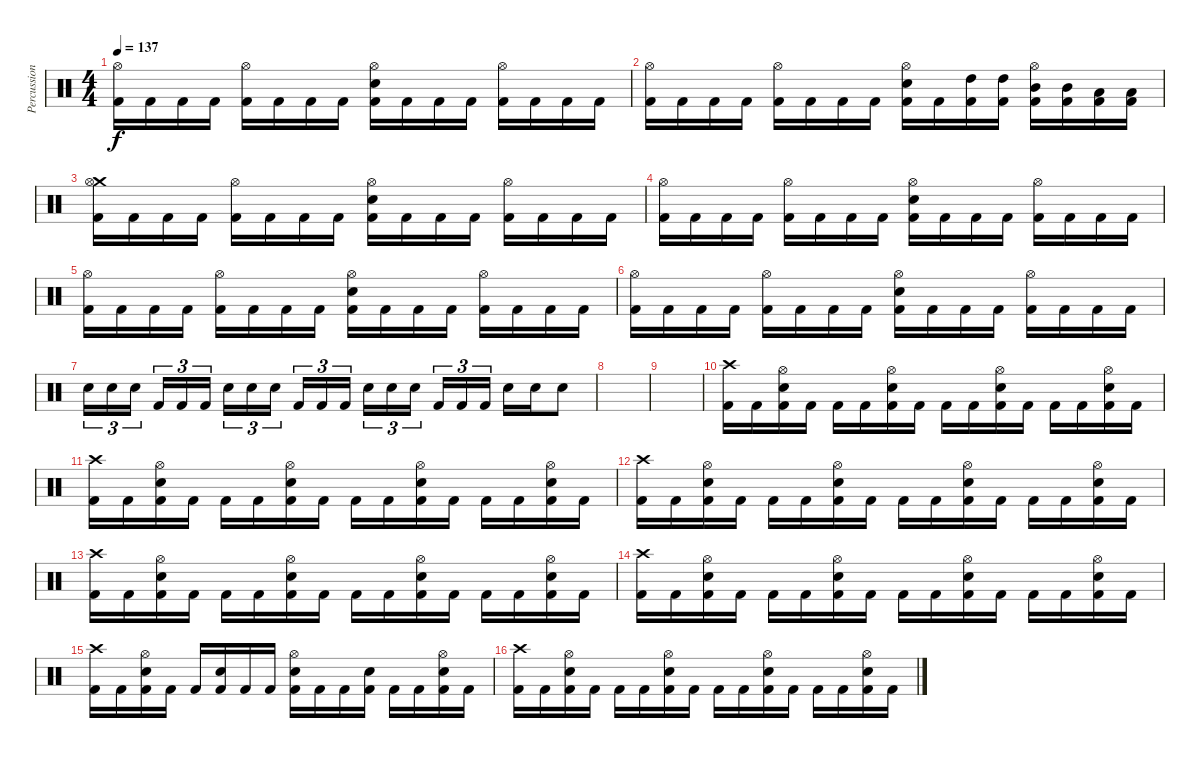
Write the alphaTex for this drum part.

\track ("Percussion" "Percussion") {instrument percussion}
\staff {score}
\articulation defaults
\ts (4 4)
\tempo 137
\clef neutral
\ks c
("Hi-Hat (open)" "Kick (hit) 2").16{dy f} "Kick (hit) 2".16 "Kick (hit) 2".16 "Kick (hit) 2".16 ("Hi-Hat (open)" "Kick (hit) 2").16 "Kick (hit) 2".16 "Kick (hit) 2".16 "Kick (hit) 2".16 ("Hi-Hat (open)" "Electric Snare (hit)" "Kick (hit) 2").16 "Kick (hit) 2".16 "Kick (hit) 2".16 "Kick (hit) 2".16 ("Hi-Hat (open)" "Kick (hit) 2").16 "Kick (hit) 2".16 "Kick (hit) 2".16 "Kick (hit) 2".16 |
("Hi-Hat (open)" "Kick (hit) 2").16 "Kick (hit) 2".16 "Kick (hit) 2".16 "Kick (hit) 2".16 ("Hi-Hat (open)" "Kick (hit) 2").16 "Kick (hit) 2".16 "Kick (hit) 2".16 "Kick (hit) 2".16 ("Hi-Hat (open)" "Electric Snare (hit)" "Kick (hit) 2").16 "Kick (hit) 2".16 ("High Tom (hit)" "Kick (hit) 2").16 ("High Tom (hit)" "Kick (hit) 2").16 ("Hi-Hat (open)" "Mid Tom (hit)" "Kick (hit) 2").16 ("Mid Tom (hit)" "Kick (hit) 2").16 ("Low Tom (hit)" "Kick (hit) 2").16 ("Low Tom (hit)" "Kick (hit) 2").16 |
("Crash medium (hit)" "Hi-Hat (open)" "Kick (hit) 2").16 "Kick (hit) 2".16 "Kick (hit) 2".16 "Kick (hit) 2".16 ("Hi-Hat (open)" "Kick (hit) 2").16 "Kick (hit) 2".16 "Kick (hit) 2".16 "Kick (hit) 2".16 ("Hi-Hat (open)" "Electric Snare (hit)" "Kick (hit) 2").16 "Kick (hit) 2".16 "Kick (hit) 2".16 "Kick (hit) 2".16 ("Hi-Hat (open)" "Kick (hit) 2").16 "Kick (hit) 2".16 "Kick (hit) 2".16 "Kick (hit) 2".16 |
("Hi-Hat (open)" "Kick (hit) 2").16 "Kick (hit) 2".16 "Kick (hit) 2".16 "Kick (hit) 2".16 ("Hi-Hat (open)" "Kick (hit) 2").16 "Kick (hit) 2".16 "Kick (hit) 2".16 "Kick (hit) 2".16 ("Hi-Hat (open)" "Electric Snare (hit)" "Kick (hit) 2").16 "Kick (hit) 2".16 "Kick (hit) 2".16 "Kick (hit) 2".16 ("Hi-Hat (open)" "Kick (hit) 2").16 "Kick (hit) 2".16 "Kick (hit) 2".16 "Kick (hit) 2".16 |
("Hi-Hat (open)" "Kick (hit) 2").16 "Kick (hit) 2".16 "Kick (hit) 2".16 "Kick (hit) 2".16 ("Hi-Hat (open)" "Kick (hit) 2").16 "Kick (hit) 2".16 "Kick (hit) 2".16 "Kick (hit) 2".16 ("Hi-Hat (open)" "Electric Snare (hit)" "Kick (hit) 2").16 "Kick (hit) 2".16 "Kick (hit) 2".16 "Kick (hit) 2".16 ("Hi-Hat (open)" "Kick (hit) 2").16 "Kick (hit) 2".16 "Kick (hit) 2".16 "Kick (hit) 2".16 |
("Hi-Hat (open)" "Kick (hit) 2").16 "Kick (hit) 2".16 "Kick (hit) 2".16 "Kick (hit) 2".16 ("Hi-Hat (open)" "Kick (hit) 2").16 "Kick (hit) 2".16 "Kick (hit) 2".16 "Kick (hit) 2".16 ("Hi-Hat (open)" "Electric Snare (hit)" "Kick (hit) 2").16 "Kick (hit) 2".16 "Kick (hit) 2".16 "Kick (hit) 2".16 ("Hi-Hat (open)" "Kick (hit) 2").16 "Kick (hit) 2".16 "Kick (hit) 2".16 "Kick (hit) 2".16 |
"Electric Snare (hit)".16{tu (3 2)} "Electric Snare (hit)".16{tu (3 2)} "Electric Snare (hit)".16{tu (3 2) beam splitsecondary} "Kick (hit) 2".16{tu (3 2)} "Kick (hit) 2".16{tu (3 2)} "Kick (hit) 2".16{tu (3 2)} "Electric Snare (hit)".16{tu (3 2)} "Electric Snare (hit)".16{tu (3 2)} "Electric Snare (hit)".16{tu (3 2) beam splitsecondary} "Kick (hit) 2".16{tu (3 2)} "Kick (hit) 2".16{tu (3 2)} "Kick (hit) 2".16{tu (3 2)} "Electric Snare (hit)".16{tu (3 2)} "Electric Snare (hit)".16{tu (3 2)} "Electric Snare (hit)".16{tu (3 2) beam splitsecondary} "Kick (hit) 2".16{tu (3 2)} "Kick (hit) 2".16{tu (3 2)} "Kick (hit) 2".16{tu (3 2)} "Electric Snare (hit)".16 "Electric Snare (hit)".16 "Electric Snare (hit)".8 |
|
|
("Crash high (hit)" "Kick (hit) 2").16 "Kick (hit) 2".16 ("Hi-Hat (open)" "Electric Snare (hit)" "Kick (hit) 2").16 "Kick (hit) 2".16 "Kick (hit) 2".16 "Kick (hit) 2".16 ("Hi-Hat (open)" "Electric Snare (hit)" "Kick (hit) 2").16 "Kick (hit) 2".16 "Kick (hit) 2".16 "Kick (hit) 2".16 ("Hi-Hat (open)" "Electric Snare (hit)" "Kick (hit) 2").16 "Kick (hit) 2".16 "Kick (hit) 2".16 "Kick (hit) 2".16 ("Hi-Hat (open)" "Electric Snare (hit)" "Kick (hit) 2").16 "Kick (hit) 2".16 |
("Crash high (hit)" "Kick (hit) 2").16 "Kick (hit) 2".16 ("Hi-Hat (open)" "Electric Snare (hit)" "Kick (hit) 2").16 "Kick (hit) 2".16 "Kick (hit) 2".16 "Kick (hit) 2".16 ("Hi-Hat (open)" "Electric Snare (hit)" "Kick (hit) 2").16 "Kick (hit) 2".16 "Kick (hit) 2".16 "Kick (hit) 2".16 ("Hi-Hat (open)" "Electric Snare (hit)" "Kick (hit) 2").16 "Kick (hit) 2".16 "Kick (hit) 2".16 "Kick (hit) 2".16 ("Hi-Hat (open)" "Electric Snare (hit)" "Kick (hit) 2").16 "Kick (hit) 2".16 |
("Crash high (hit)" "Kick (hit) 2").16 "Kick (hit) 2".16 ("Hi-Hat (open)" "Electric Snare (hit)" "Kick (hit) 2").16 "Kick (hit) 2".16 "Kick (hit) 2".16 "Kick (hit) 2".16 ("Hi-Hat (open)" "Electric Snare (hit)" "Kick (hit) 2").16 "Kick (hit) 2".16 "Kick (hit) 2".16 "Kick (hit) 2".16 ("Hi-Hat (open)" "Electric Snare (hit)" "Kick (hit) 2").16 "Kick (hit) 2".16 "Kick (hit) 2".16 "Kick (hit) 2".16 ("Hi-Hat (open)" "Electric Snare (hit)" "Kick (hit) 2").16 "Kick (hit) 2".16 |
("Crash high (hit)" "Kick (hit) 2").16 "Kick (hit) 2".16 ("Hi-Hat (open)" "Electric Snare (hit)" "Kick (hit) 2").16 "Kick (hit) 2".16 "Kick (hit) 2".16 "Kick (hit) 2".16 ("Hi-Hat (open)" "Electric Snare (hit)" "Kick (hit) 2").16 "Kick (hit) 2".16 "Kick (hit) 2".16 "Kick (hit) 2".16 ("Hi-Hat (open)" "Electric Snare (hit)" "Kick (hit) 2").16 "Kick (hit) 2".16 "Kick (hit) 2".16 "Kick (hit) 2".16 ("Hi-Hat (open)" "Electric Snare (hit)" "Kick (hit) 2").16 "Kick (hit) 2".16 |
("Crash high (hit)" "Kick (hit) 2").16 "Kick (hit) 2".16 ("Hi-Hat (open)" "Electric Snare (hit)" "Kick (hit) 2").16 "Kick (hit) 2".16 "Kick (hit) 2".16 "Kick (hit) 2".16 ("Hi-Hat (open)" "Electric Snare (hit)" "Kick (hit) 2").16 "Kick (hit) 2".16 "Kick (hit) 2".16 "Kick (hit) 2".16 ("Hi-Hat (open)" "Electric Snare (hit)" "Kick (hit) 2").16 "Kick (hit) 2".16 "Kick (hit) 2".16 "Kick (hit) 2".16 ("Hi-Hat (open)" "Electric Snare (hit)" "Kick (hit) 2").16 "Kick (hit) 2".16 |
("Crash high (hit)" "Kick (hit) 2").16 "Kick (hit) 2".16 ("Hi-Hat (open)" "Electric Snare (hit)" "Kick (hit) 2").16 "Kick (hit) 2".16 "Kick (hit) 2".16 ("Electric Snare (hit)" "Kick (hit) 2").16 "Kick (hit) 2".16 "Kick (hit) 2".16 ("Hi-Hat (open)" "Electric Snare (hit)" "Kick (hit) 2").16 "Kick (hit) 2".16 "Kick (hit) 2".16 ("Electric Snare (hit)" "Kick (hit) 2").16 "Kick (hit) 2".16 "Kick (hit) 2".16 ("Hi-Hat (open)" "Electric Snare (hit)" "Kick (hit) 2").16 "Kick (hit) 2".16 |
("Crash high (hit)" "Kick (hit) 2").16 "Kick (hit) 2".16 ("Hi-Hat (open)" "Electric Snare (hit)" "Kick (hit) 2").16 "Kick (hit) 2".16 "Kick (hit) 2".16 "Kick (hit) 2".16 ("Hi-Hat (open)" "Electric Snare (hit)" "Kick (hit) 2").16 "Kick (hit) 2".16 "Kick (hit) 2".16 "Kick (hit) 2".16 ("Hi-Hat (open)" "Electric Snare (hit)" "Kick (hit) 2").16 "Kick (hit) 2".16 "Kick (hit) 2".16 "Kick (hit) 2".16 ("Hi-Hat (open)" "Electric Snare (hit)" "Kick (hit) 2").16 "Kick (hit) 2".16
